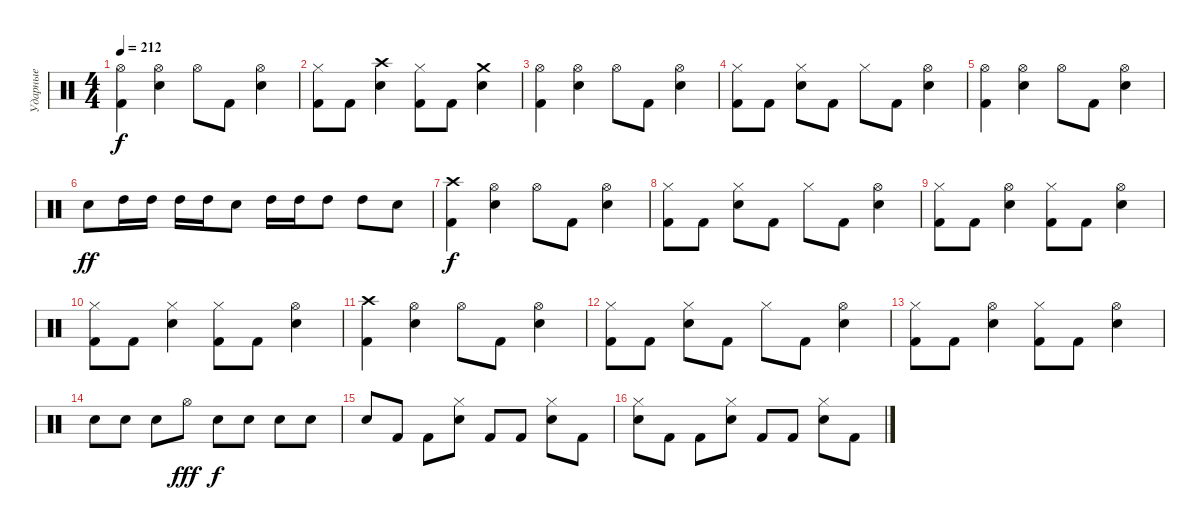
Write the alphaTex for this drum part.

\track ("Ударные" "Ударные") {instrument percussion}
\staff {score}
\articulation defaults
\ts (4 4)
\tempo 212
\clef neutral
\ks c
("Hi-Hat (open)" "Kick (hit) 2").4{dy f} ("Hi-Hat (open)" "Electric Snare (hit)").4 "Hi-Hat (open)".8 "Kick (hit) 2".8 ("Hi-Hat (open)" "Electric Snare (hit)").4 |
("Hi-Hat (closed)" "Kick (hit) 2").8 "Kick (hit) 2".8 ("Crash high (hit)" "Electric Snare (hit)").4 ("Hi-Hat (closed)" "Kick (hit) 2").8 "Kick (hit) 2".8 ("Crash medium (hit)" "Electric Snare (hit)").4 |
("Hi-Hat (open)" "Kick (hit) 2").4 ("Hi-Hat (open)" "Electric Snare (hit)").4 "Hi-Hat (open)".8 "Kick (hit) 2".8 ("Hi-Hat (open)" "Electric Snare (hit)").4 |
("Hi-Hat (closed)" "Kick (hit) 2").8 "Kick (hit) 2".8 ("Hi-Hat (closed)" "Electric Snare (hit)").8 "Kick (hit) 2".8 "Hi-Hat (closed)".8 "Kick (hit) 2".8 ("Hi-Hat (open)" "Electric Snare (hit)").4 |
("Hi-Hat (open)" "Kick (hit) 2").4 ("Hi-Hat (open)" "Electric Snare (hit)").4 "Hi-Hat (open)".8 "Kick (hit) 2".8 ("Hi-Hat (open)" "Electric Snare (hit)").4 |
"Electric Snare (hit)".8{dy ff} "High Tom (hit)".16 "High Tom (hit)".16 "High Tom (hit)".16 "High Tom (hit)".16 "Electric Snare (hit)".8 "High Tom (hit)".16 "High Tom (hit)".16 "High Tom (hit)".8 "High Tom (hit)".8 "Electric Snare (hit)".8 |
("Crash high (hit)" "Kick (hit) 2").4{dy f} ("Hi-Hat (open)" "Electric Snare (hit)").4 "Hi-Hat (open)".8 "Kick (hit) 2".8 ("Hi-Hat (open)" "Electric Snare (hit)").4 |
("Hi-Hat (closed)" "Kick (hit) 2").8 "Kick (hit) 2".8 ("Hi-Hat (closed)" "Electric Snare (hit)").8 "Kick (hit) 2".8 "Hi-Hat (closed)".8 "Kick (hit) 2".8 ("Hi-Hat (open)" "Electric Snare (hit)").4 |
("Hi-Hat (closed)" "Kick (hit) 2").8 "Kick (hit) 2".8 ("Hi-Hat (open)" "Electric Snare (hit)").4 ("Hi-Hat (closed)" "Kick (hit) 2").8 "Kick (hit) 2".8 ("Hi-Hat (open)" "Electric Snare (hit)").4 |
("Hi-Hat (closed)" "Kick (hit) 2").8 "Kick (hit) 2".8 ("Hi-Hat (closed)" "Electric Snare (hit)").4 ("Hi-Hat (closed)" "Kick (hit) 2").8 "Kick (hit) 2".8 ("Hi-Hat (open)" "Electric Snare (hit)").4 |
("Crash high (hit)" "Kick (hit) 2").4 ("Hi-Hat (open)" "Electric Snare (hit)").4 "Hi-Hat (open)".8 "Kick (hit) 2".8 ("Hi-Hat (open)" "Electric Snare (hit)").4 |
("Hi-Hat (closed)" "Kick (hit) 2").8 "Kick (hit) 2".8 ("Hi-Hat (closed)" "Electric Snare (hit)").8 "Kick (hit) 2".8 "Hi-Hat (closed)".8 "Kick (hit) 2".8 ("Hi-Hat (open)" "Electric Snare (hit)").4 |
("Hi-Hat (closed)" "Kick (hit) 2").8 "Kick (hit) 2".8 ("Hi-Hat (open)" "Electric Snare (hit)").4 ("Hi-Hat (closed)" "Kick (hit) 2").8 "Kick (hit) 2".8 ("Hi-Hat (open)" "Electric Snare (hit)").4 |
"Electric Snare (hit)".8 "Electric Snare (hit)".8 "Electric Snare (hit)".8 "Hi-Hat (open)".8{dy fff} "Electric Snare (hit)".8{dy f} "Electric Snare (hit)".8 "Electric Snare (hit)".8 "Electric Snare (hit)".8 |
"Electric Snare (hit)".8 "Kick (hit) 2".8 "Kick (hit) 2".8 ("Hi-Hat (closed)" "Electric Snare (hit)").8 "Kick (hit) 2".8 "Kick (hit) 2".8 ("Hi-Hat (closed)" "Electric Snare (hit)").8 "Kick (hit) 2".8 |
("Hi-Hat (closed)" "Electric Snare (hit)").8 "Kick (hit) 2".8 "Kick (hit) 2".8 ("Hi-Hat (closed)" "Electric Snare (hit)").8 "Kick (hit) 2".8 "Kick (hit) 2".8 ("Hi-Hat (closed)" "Electric Snare (hit)").8 "Kick (hit) 2".8
